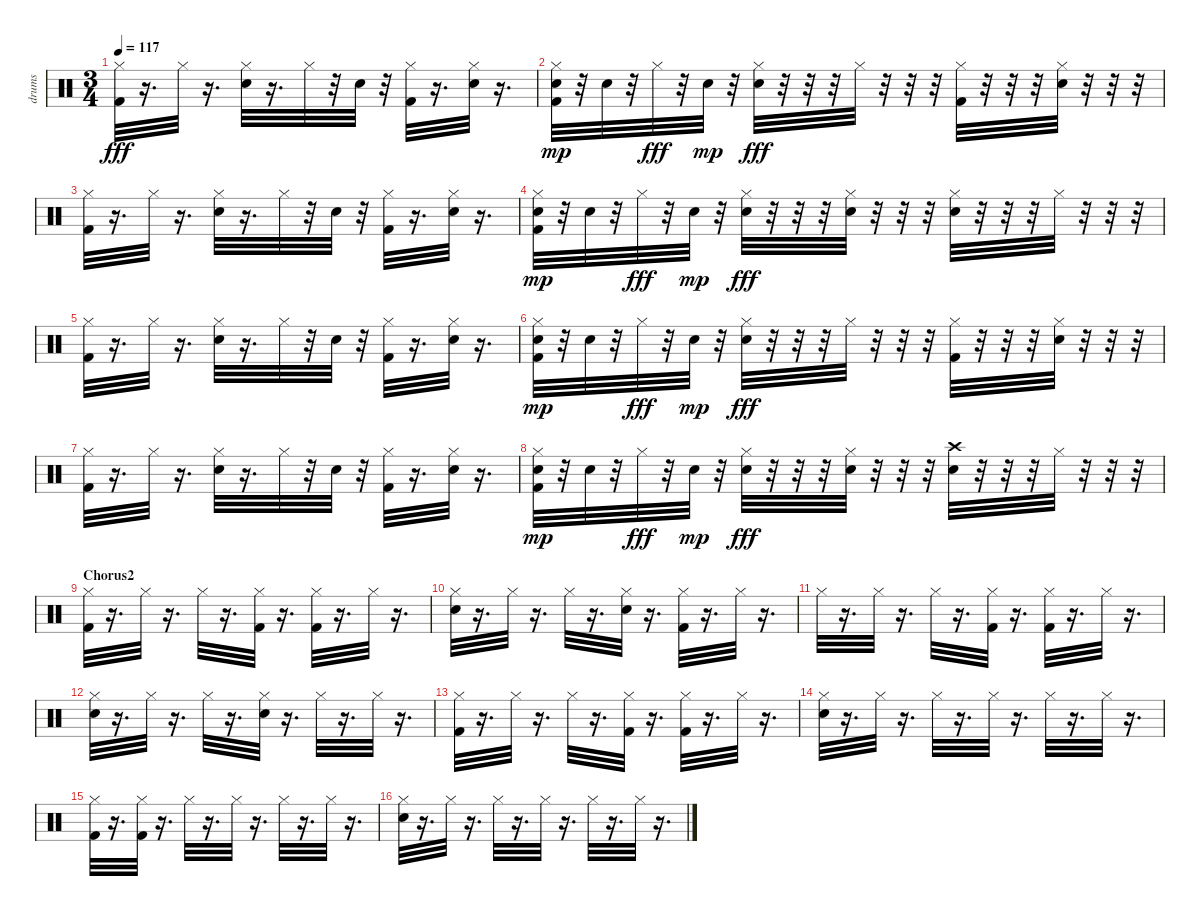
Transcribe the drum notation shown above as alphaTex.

\track ("drums" "drums") {instrument percussion}
\staff {score}
\articulation defaults
\ts (3 4)
\tempo 117
\clef neutral
\ks c
("Hi-Hat (closed)" "Kick (hit) 2").32{dy fff} r.16{d} "Hi-Hat (closed)".32 r.16{d} ("Electric Snare (hit)" "Hi-Hat (closed)").32 r.16{d} "Hi-Hat (closed)".32 r.32 "Electric Snare (hit)".32 r.32 ("Hi-Hat (closed)" "Kick (hit) 2").32 r.16{d} ("Electric Snare (hit)" "Hi-Hat (closed)").32 r.16{d} |
("Hi-Hat (closed)" "Kick (hit) 2" "Electric Snare (hit)").32{dy mp} r.32 "Electric Snare (hit)".32 r.32 "Hi-Hat (closed)".32{dy fff} r.32 "Electric Snare (hit)".32{dy mp} r.32 ("Electric Snare (hit)" "Hi-Hat (closed)").32{dy fff} r.32 r.32 r.32 "Hi-Hat (closed)".32 r.32 r.32 r.32 ("Hi-Hat (closed)" "Kick (hit) 2").32 r.32 r.32 r.32 ("Electric Snare (hit)" "Hi-Hat (closed)").32 r.32 r.32 r.32 |
("Hi-Hat (closed)" "Kick (hit) 2").32 r.16{d} "Hi-Hat (closed)".32 r.16{d} ("Electric Snare (hit)" "Hi-Hat (closed)").32 r.16{d} "Hi-Hat (closed)".32 r.32 "Electric Snare (hit)".32 r.32 ("Hi-Hat (closed)" "Kick (hit) 2").32 r.16{d} ("Electric Snare (hit)" "Hi-Hat (closed)").32 r.16{d} |
("Hi-Hat (closed)" "Kick (hit) 2" "Electric Snare (hit)").32{dy mp} r.32 "Electric Snare (hit)".32 r.32 "Hi-Hat (closed)".32{dy fff} r.32 "Electric Snare (hit)".32{dy mp} r.32 ("Electric Snare (hit)" "Hi-Hat (closed)").32{dy fff} r.32 r.32 r.32 ("Hi-Hat (closed)" "Electric Snare (hit)").32 r.32 r.32 r.32 ("Hi-Hat (closed)" "Electric Snare (hit)").32 r.32 r.32 r.32 "Hi-Hat (closed)".32 r.32 r.32 r.32 |
("Hi-Hat (closed)" "Kick (hit) 2").32 r.16{d} "Hi-Hat (closed)".32 r.16{d} ("Electric Snare (hit)" "Hi-Hat (closed)").32 r.16{d} "Hi-Hat (closed)".32 r.32 "Electric Snare (hit)".32 r.32 ("Hi-Hat (closed)" "Kick (hit) 2").32 r.16{d} ("Electric Snare (hit)" "Hi-Hat (closed)").32 r.16{d} |
("Hi-Hat (closed)" "Kick (hit) 2" "Electric Snare (hit)").32{dy mp} r.32 "Electric Snare (hit)".32 r.32 "Hi-Hat (closed)".32{dy fff} r.32 "Electric Snare (hit)".32{dy mp} r.32 ("Electric Snare (hit)" "Hi-Hat (closed)").32{dy fff} r.32 r.32 r.32 "Hi-Hat (closed)".32 r.32 r.32 r.32 ("Hi-Hat (closed)" "Kick (hit) 2").32 r.32 r.32 r.32 ("Electric Snare (hit)" "Hi-Hat (closed)").32 r.32 r.32 r.32 |
("Hi-Hat (closed)" "Kick (hit) 2").32 r.16{d} "Hi-Hat (closed)".32 r.16{d} ("Electric Snare (hit)" "Hi-Hat (closed)").32 r.16{d} "Hi-Hat (closed)".32 r.32 "Electric Snare (hit)".32 r.32 ("Hi-Hat (closed)" "Kick (hit) 2").32 r.16{d} ("Electric Snare (hit)" "Hi-Hat (closed)").32 r.16{d} |
("Hi-Hat (closed)" "Kick (hit) 2" "Electric Snare (hit)").32{dy mp} r.32 "Electric Snare (hit)".32 r.32 "Hi-Hat (closed)".32{dy fff} r.32 "Electric Snare (hit)".32{dy mp} r.32 ("Electric Snare (hit)" "Hi-Hat (closed)").32{dy fff} r.32 r.32 r.32 ("Hi-Hat (closed)" "Electric Snare (hit)").32 r.32 r.32 r.32 ("Crash high (hit)" "Electric Snare (hit)").32 r.32 r.32 r.32 "Hi-Hat (closed)".32 r.32 r.32 r.32 |
\section ("" "Chorus2")
("Hi-Hat (closed)" "Kick (hit) 2").32 r.16{d} "Hi-Hat (closed)".32 r.16{d} "Hi-Hat (closed)".32 r.16{d} ("Hi-Hat (closed)" "Kick (hit) 2").32 r.16{d} ("Hi-Hat (closed)" "Kick (hit) 2").32 r.16{d} "Hi-Hat (closed)".32 r.16{d} |
("Electric Snare (hit)" "Hi-Hat (closed)").32 r.16{d} "Hi-Hat (closed)".32 r.16{d} "Hi-Hat (closed)".32 r.16{d} ("Electric Snare (hit)" "Hi-Hat (closed)").32 r.16{d} ("Kick (hit) 2" "Hi-Hat (closed)").32 r.16{d} "Hi-Hat (closed)".32 r.16{d} |
"Hi-Hat (closed)".32 r.16{d} "Hi-Hat (closed)".32 r.16{d} "Hi-Hat (closed)".32 r.16{d} ("Hi-Hat (closed)" "Kick (hit) 2").32 r.16{d} ("Hi-Hat (closed)" "Kick (hit) 2").32 r.16{d} "Hi-Hat (closed)".32 r.16{d} |
("Electric Snare (hit)" "Hi-Hat (closed)").32 r.16{d} "Hi-Hat (closed)".32 r.16{d} "Hi-Hat (closed)".32 r.16{d} ("Hi-Hat (closed)" "Electric Snare (hit)").32 r.16{d} "Hi-Hat (closed)".32 r.16{d} "Hi-Hat (closed)".32 r.16{d} |
("Kick (hit) 2" "Hi-Hat (closed)").32 r.16{d} "Hi-Hat (closed)".32 r.16{d} "Hi-Hat (closed)".32 r.16{d} ("Hi-Hat (closed)" "Kick (hit) 2").32 r.16{d} ("Kick (hit) 2" "Hi-Hat (closed)").32 r.16{d} "Hi-Hat (closed)".32 r.16{d} |
("Hi-Hat (closed)" "Electric Snare (hit)").32 r.16{d} "Hi-Hat (closed)".32 r.16{d} "Hi-Hat (closed)".32 r.16{d} "Hi-Hat (closed)".32 r.16{d} "Hi-Hat (closed)".32 r.16{d} "Hi-Hat (closed)".32 r.16{d} |
("Hi-Hat (closed)" "Kick (hit) 2").32 r.16{d} ("Kick (hit) 2" "Hi-Hat (closed)").32 r.16{d} "Hi-Hat (closed)".32 r.16{d} "Hi-Hat (closed)".32 r.16{d} "Hi-Hat (closed)".32 r.16{d} "Hi-Hat (closed)".32 r.16{d} |
("Electric Snare (hit)" "Hi-Hat (closed)").32 r.16{d} "Hi-Hat (closed)".32 r.16{d} "Hi-Hat (closed)".32 r.16{d} "Hi-Hat (closed)".32 r.16{d} "Hi-Hat (closed)".32 r.16{d} "Hi-Hat (closed)".32 r.16{d}
